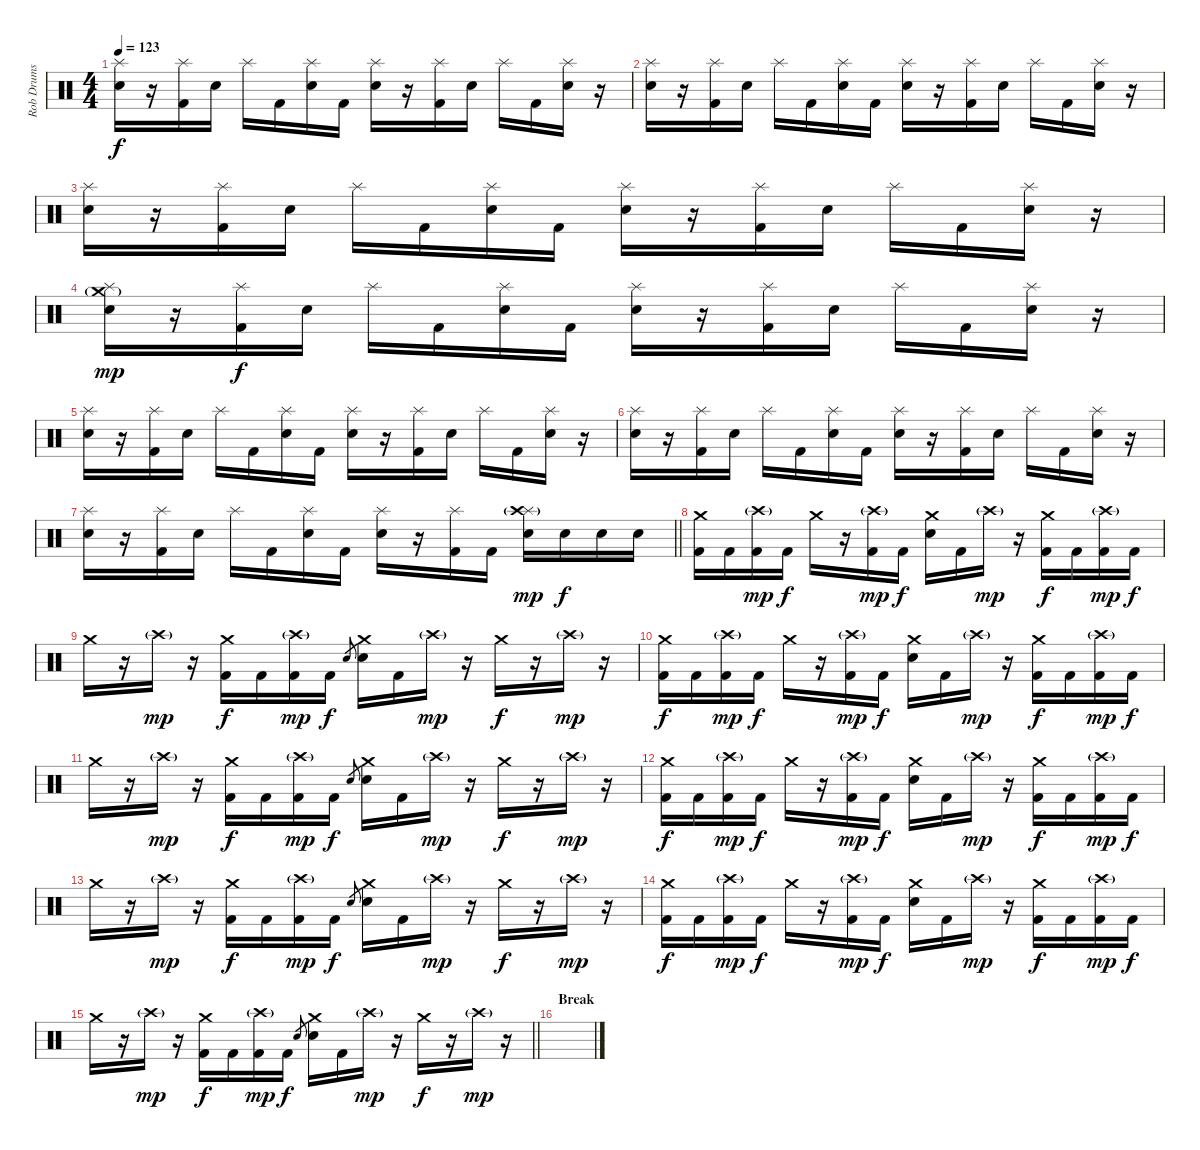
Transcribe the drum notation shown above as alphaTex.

\track ("Rob Drums" "Rob Drums") {instrument percussion}
\staff {score}
\articulation defaults
\ts (4 4)
\tempo 123
\clef neutral
\ks c
("Splash (hit)" "Electric Snare (hit)").16{dy f} r.16 ("Splash (hit)" "Kick (hit) 2").16 "Electric Snare (hit)".16 "Splash (hit)".16 "Kick (hit) 2".16 ("Splash (hit)" "Electric Snare (hit)").16 "Kick (hit) 2".16 ("Splash (hit)" "Electric Snare (hit)").16 r.16 ("Splash (hit)" "Kick (hit) 2").16 "Electric Snare (hit)".16 "Splash (hit)".16 "Kick (hit) 2".16 ("Splash (hit)" "Electric Snare (hit)").16 r.16 |
("Splash (hit)" "Electric Snare (hit)").16 r.16 ("Splash (hit)" "Kick (hit) 2").16 "Electric Snare (hit)".16 "Splash (hit)".16 "Kick (hit) 2".16 ("Splash (hit)" "Electric Snare (hit)").16 "Kick (hit) 2".16 ("Splash (hit)" "Electric Snare (hit)").16 r.16 ("Splash (hit)" "Kick (hit) 2").16 "Electric Snare (hit)".16 "Splash (hit)".16 "Kick (hit) 2".16 ("Splash (hit)" "Electric Snare (hit)").16 r.16 |
("Splash (hit)" "Electric Snare (hit)").16 r.16 ("Splash (hit)" "Kick (hit) 2").16 "Electric Snare (hit)".16 "Splash (hit)".16 "Kick (hit) 2".16 ("Splash (hit)" "Electric Snare (hit)").16 "Kick (hit) 2".16 ("Splash (hit)" "Electric Snare (hit)").16 r.16 ("Splash (hit)" "Kick (hit) 2").16 "Electric Snare (hit)".16 "Splash (hit)".16 "Kick (hit) 2".16 ("Splash (hit)" "Electric Snare (hit)").16 r.16 |
("Splash (hit)" "Crash medium (hit)"{g} "Electric Snare (hit)").16{dy mp} r.16 ("Splash (hit)" "Kick (hit) 2").16{dy f} "Electric Snare (hit)".16 "Splash (hit)".16 "Kick (hit) 2".16 ("Splash (hit)" "Electric Snare (hit)").16 "Kick (hit) 2".16 ("Splash (hit)" "Electric Snare (hit)").16 r.16 ("Splash (hit)" "Kick (hit) 2").16 "Electric Snare (hit)".16 "Splash (hit)".16 "Kick (hit) 2".16 ("Splash (hit)" "Electric Snare (hit)").16 r.16 |
("Splash (hit)" "Electric Snare (hit)").16 r.16 ("Splash (hit)" "Kick (hit) 2").16 "Electric Snare (hit)".16 "Splash (hit)".16 "Kick (hit) 2".16 ("Splash (hit)" "Electric Snare (hit)").16 "Kick (hit) 2".16 ("Splash (hit)" "Electric Snare (hit)").16 r.16 ("Splash (hit)" "Kick (hit) 2").16 "Electric Snare (hit)".16 "Splash (hit)".16 "Kick (hit) 2".16 ("Splash (hit)" "Electric Snare (hit)").16 r.16 |
("Splash (hit)" "Electric Snare (hit)").16 r.16 ("Splash (hit)" "Kick (hit) 2").16 "Electric Snare (hit)".16 "Splash (hit)".16 "Kick (hit) 2".16 ("Splash (hit)" "Electric Snare (hit)").16 "Kick (hit) 2".16 ("Splash (hit)" "Electric Snare (hit)").16 r.16 ("Splash (hit)" "Kick (hit) 2").16 "Electric Snare (hit)".16 "Splash (hit)".16 "Kick (hit) 2".16 ("Splash (hit)" "Electric Snare (hit)").16 r.16 |
\barLineRight lightlight
("Splash (hit)" "Electric Snare (hit)").16 r.16 ("Splash (hit)" "Kick (hit) 2").16 "Electric Snare (hit)".16 "Splash (hit)".16 "Kick (hit) 2".16 ("Splash (hit)" "Electric Snare (hit)").16 "Kick (hit) 2".16 ("Splash (hit)" "Electric Snare (hit)").16 r.16 ("Splash (hit)" "Kick (hit) 2").16 "Kick (hit) 2".16 ("Splash (hit)" "Crash high (hit)"{g} "Electric Snare (hit)").16{dy mp} "Electric Snare (hit)".16{dy f} "Electric Snare (hit)".16 "Electric Snare (hit)".16 |
("Crash medium (hit)" "Kick (hit) 2").16 "Kick (hit) 2".16 ("Crash high (hit)"{g} "Kick (hit) 2").16{dy mp} "Kick (hit) 2".16{dy f} "Crash medium (hit)".16 r.16 ("Crash high (hit)"{g} "Kick (hit) 2").16{dy mp} "Kick (hit) 2".16{dy f} ("Crash medium (hit)" "Electric Snare (hit)").16 "Kick (hit) 2".16 "Crash high (hit)"{g}.16{dy mp} r.16 ("Crash medium (hit)" "Kick (hit) 2").16{dy f} "Kick (hit) 2".16 ("Crash high (hit)"{g} "Kick (hit) 2").16{dy mp} "Kick (hit) 2".16{dy f} |
"Crash medium (hit)".16 r.16 "Crash high (hit)"{g}.16{dy mp} r.16 ("Crash medium (hit)" "Kick (hit) 2").16{dy f} "Kick (hit) 2".16 ("Crash high (hit)"{g} "Kick (hit) 2").16{dy mp} "Kick (hit) 2".16{dy f} "Electric Snare (hit)".8{gr} ("Crash medium (hit)" "Electric Snare (hit)").16 "Kick (hit) 2".16 "Crash high (hit)"{g}.16{dy mp} r.16 "Crash medium (hit)".16{dy f} r.16 "Crash high (hit)"{g}.16{dy mp} r.16 |
("Crash medium (hit)" "Kick (hit) 2").16{dy f} "Kick (hit) 2".16 ("Crash high (hit)"{g} "Kick (hit) 2").16{dy mp} "Kick (hit) 2".16{dy f} "Crash medium (hit)".16 r.16 ("Crash high (hit)"{g} "Kick (hit) 2").16{dy mp} "Kick (hit) 2".16{dy f} ("Crash medium (hit)" "Electric Snare (hit)").16 "Kick (hit) 2".16 "Crash high (hit)"{g}.16{dy mp} r.16 ("Crash medium (hit)" "Kick (hit) 2").16{dy f} "Kick (hit) 2".16 ("Crash high (hit)"{g} "Kick (hit) 2").16{dy mp} "Kick (hit) 2".16{dy f} |
"Crash medium (hit)".16 r.16 "Crash high (hit)"{g}.16{dy mp} r.16 ("Crash medium (hit)" "Kick (hit) 2").16{dy f} "Kick (hit) 2".16 ("Crash high (hit)"{g} "Kick (hit) 2").16{dy mp} "Kick (hit) 2".16{dy f} "Electric Snare (hit)".8{gr} ("Crash medium (hit)" "Electric Snare (hit)").16 "Kick (hit) 2".16 "Crash high (hit)"{g}.16{dy mp} r.16 "Crash medium (hit)".16{dy f} r.16 "Crash high (hit)"{g}.16{dy mp} r.16 |
("Crash medium (hit)" "Kick (hit) 2").16{dy f} "Kick (hit) 2".16 ("Crash high (hit)"{g} "Kick (hit) 2").16{dy mp} "Kick (hit) 2".16{dy f} "Crash medium (hit)".16 r.16 ("Crash high (hit)"{g} "Kick (hit) 2").16{dy mp} "Kick (hit) 2".16{dy f} ("Crash medium (hit)" "Electric Snare (hit)").16 "Kick (hit) 2".16 "Crash high (hit)"{g}.16{dy mp} r.16 ("Crash medium (hit)" "Kick (hit) 2").16{dy f} "Kick (hit) 2".16 ("Crash high (hit)"{g} "Kick (hit) 2").16{dy mp} "Kick (hit) 2".16{dy f} |
"Crash medium (hit)".16 r.16 "Crash high (hit)"{g}.16{dy mp} r.16 ("Crash medium (hit)" "Kick (hit) 2").16{dy f} "Kick (hit) 2".16 ("Crash high (hit)"{g} "Kick (hit) 2").16{dy mp} "Kick (hit) 2".16{dy f} "Electric Snare (hit)".8{gr} ("Crash medium (hit)" "Electric Snare (hit)").16 "Kick (hit) 2".16 "Crash high (hit)"{g}.16{dy mp} r.16 "Crash medium (hit)".16{dy f} r.16 "Crash high (hit)"{g}.16{dy mp} r.16 |
("Crash medium (hit)" "Kick (hit) 2").16{dy f} "Kick (hit) 2".16 ("Crash high (hit)"{g} "Kick (hit) 2").16{dy mp} "Kick (hit) 2".16{dy f} "Crash medium (hit)".16 r.16 ("Crash high (hit)"{g} "Kick (hit) 2").16{dy mp} "Kick (hit) 2".16{dy f} ("Crash medium (hit)" "Electric Snare (hit)").16 "Kick (hit) 2".16 "Crash high (hit)"{g}.16{dy mp} r.16 ("Crash medium (hit)" "Kick (hit) 2").16{dy f} "Kick (hit) 2".16 ("Crash high (hit)"{g} "Kick (hit) 2").16{dy mp} "Kick (hit) 2".16{dy f} |
\barLineRight lightlight "Crash medium (hit)".16
r.16 "Crash high (hit)"{g}.16{dy mp} r.16 ("Crash medium (hit)" "Kick (hit) 2").16{dy f} "Kick (hit) 2".16 ("Crash high (hit)"{g} "Kick (hit) 2").16{dy mp} "Kick (hit) 2".16{dy f} "Electric Snare (hit)".8{gr} ("Crash medium (hit)" "Electric Snare (hit)").16 "Kick (hit) 2".16 "Crash high (hit)"{g}.16{dy mp} r.16 "Crash medium (hit)".16{dy f} r.16 "Crash high (hit)"{g}.16{dy mp} r.16 |
\section ("" "Break")
